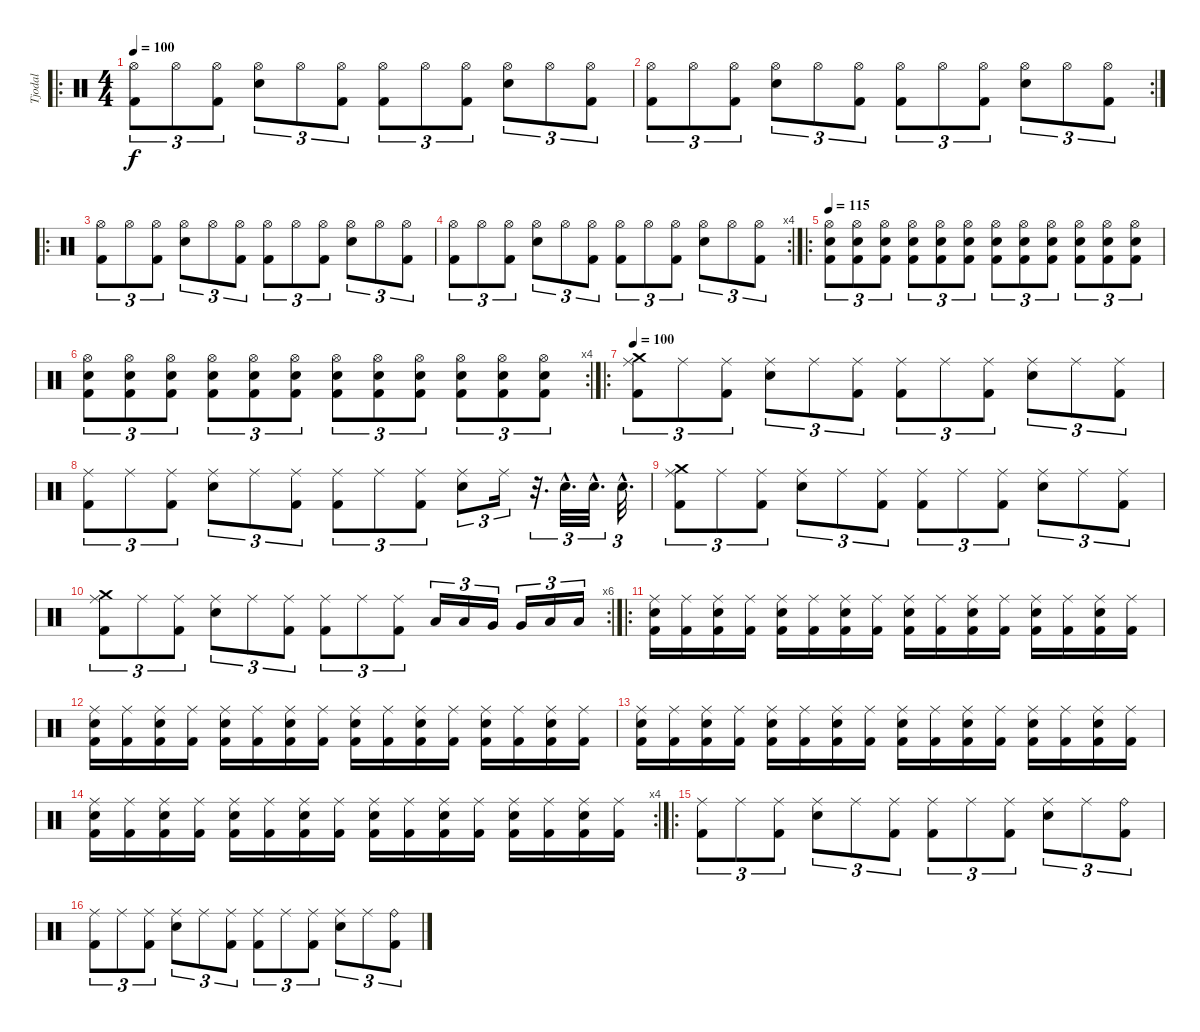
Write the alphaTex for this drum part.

\track ("Tjodal" "Tjodal") {instrument percussion}
\staff {score}
\articulation defaults
\ro
\ts (4 4)
\tempo 100
\clef neutral
\ks c
("Hi-Hat (open)" "Kick (hit) 2").8{tu (3 2) dy f} "Hi-Hat (open)".8{tu (3 2)} ("Hi-Hat (open)" "Kick (hit) 2").8{tu (3 2)} ("Hi-Hat (open)" "Snare (hit) 2").8{tu (3 2)} "Hi-Hat (open)".8{tu (3 2)} ("Hi-Hat (open)" "Kick (hit) 2").8{tu (3 2)} ("Hi-Hat (open)" "Kick (hit) 2").8{tu (3 2)} "Hi-Hat (open)".8{tu (3 2)} ("Hi-Hat (open)" "Kick (hit) 2").8{tu (3 2)} ("Hi-Hat (open)" "Snare (hit) 2").8{tu (3 2)} "Hi-Hat (open)".8{tu (3 2)} ("Hi-Hat (open)" "Kick (hit) 2").8{tu (3 2)} |
\rc 2
("Hi-Hat (open)" "Kick (hit) 2").8{tu (3 2)} "Hi-Hat (open)".8{tu (3 2)} ("Hi-Hat (open)" "Kick (hit) 2").8{tu (3 2)} ("Hi-Hat (open)" "Snare (hit) 2").8{tu (3 2)} "Hi-Hat (open)".8{tu (3 2)} ("Hi-Hat (open)" "Kick (hit) 2").8{tu (3 2)} ("Hi-Hat (open)" "Kick (hit) 2").8{tu (3 2)} "Hi-Hat (open)".8{tu (3 2)} ("Hi-Hat (open)" "Kick (hit) 2").8{tu (3 2)} ("Hi-Hat (open)" "Snare (hit) 2").8{tu (3 2)} "Hi-Hat (open)".8{tu (3 2)} ("Hi-Hat (open)" "Kick (hit) 2").8{tu (3 2)} |
\ro
("Hi-Hat (open)" "Kick (hit) 2").8{tu (3 2)} "Hi-Hat (open)".8{tu (3 2)} ("Hi-Hat (open)" "Kick (hit) 2").8{tu (3 2)} ("Hi-Hat (open)" "Snare (hit) 2").8{tu (3 2)} "Hi-Hat (open)".8{tu (3 2)} ("Hi-Hat (open)" "Kick (hit) 2").8{tu (3 2)} ("Hi-Hat (open)" "Kick (hit) 2").8{tu (3 2)} "Hi-Hat (open)".8{tu (3 2)} ("Hi-Hat (open)" "Kick (hit) 2").8{tu (3 2)} ("Hi-Hat (open)" "Snare (hit) 2").8{tu (3 2)} "Hi-Hat (open)".8{tu (3 2)} ("Hi-Hat (open)" "Kick (hit) 2").8{tu (3 2)} |
\rc 4
("Hi-Hat (open)" "Kick (hit) 2").8{tu (3 2)} "Hi-Hat (open)".8{tu (3 2)} ("Hi-Hat (open)" "Kick (hit) 2").8{tu (3 2)} ("Hi-Hat (open)" "Snare (hit) 2").8{tu (3 2)} "Hi-Hat (open)".8{tu (3 2)} ("Hi-Hat (open)" "Kick (hit) 2").8{tu (3 2)} ("Hi-Hat (open)" "Kick (hit) 2").8{tu (3 2)} "Hi-Hat (open)".8{tu (3 2)} ("Hi-Hat (open)" "Kick (hit) 2").8{tu (3 2)} ("Hi-Hat (open)" "Snare (hit) 2").8{tu (3 2)} "Hi-Hat (open)".8{tu (3 2)} ("Hi-Hat (open)" "Kick (hit) 2").8{tu (3 2)} |
\ro
\tempo 115
("Hi-Hat (open)" "Snare (hit) 2" "Kick (hit) 2").8{tu (3 2)} ("Hi-Hat (open)" "Snare (hit) 2" "Kick (hit) 2").8{tu (3 2)} ("Hi-Hat (open)" "Snare (hit) 2" "Kick (hit) 2").8{tu (3 2)} ("Hi-Hat (open)" "Snare (hit) 2" "Kick (hit) 2").8{tu (3 2)} ("Hi-Hat (open)" "Snare (hit) 2" "Kick (hit) 2").8{tu (3 2)} ("Hi-Hat (open)" "Snare (hit) 2" "Kick (hit) 2").8{tu (3 2)} ("Hi-Hat (open)" "Snare (hit) 2" "Kick (hit) 2").8{tu (3 2)} ("Hi-Hat (open)" "Snare (hit) 2" "Kick (hit) 2").8{tu (3 2)} ("Hi-Hat (open)" "Snare (hit) 2" "Kick (hit) 2").8{tu (3 2)} ("Hi-Hat (open)" "Snare (hit) 2" "Kick (hit) 2").8{tu (3 2)} ("Hi-Hat (open)" "Snare (hit) 2" "Kick (hit) 2").8{tu (3 2)} ("Hi-Hat (open)" "Snare (hit) 2" "Kick (hit) 2").8{tu (3 2)} |
\rc 4
("Hi-Hat (open)" "Snare (hit) 2" "Kick (hit) 2").8{tu (3 2)} ("Hi-Hat (open)" "Snare (hit) 2" "Kick (hit) 2").8{tu (3 2)} ("Hi-Hat (open)" "Snare (hit) 2" "Kick (hit) 2").8{tu (3 2)} ("Hi-Hat (open)" "Snare (hit) 2" "Kick (hit) 2").8{tu (3 2)} ("Hi-Hat (open)" "Snare (hit) 2" "Kick (hit) 2").8{tu (3 2)} ("Hi-Hat (open)" "Snare (hit) 2" "Kick (hit) 2").8{tu (3 2)} ("Hi-Hat (open)" "Snare (hit) 2" "Kick (hit) 2").8{tu (3 2)} ("Hi-Hat (open)" "Snare (hit) 2" "Kick (hit) 2").8{tu (3 2)} ("Hi-Hat (open)" "Snare (hit) 2" "Kick (hit) 2").8{tu (3 2)} ("Hi-Hat (open)" "Snare (hit) 2" "Kick (hit) 2").8{tu (3 2)} ("Hi-Hat (open)" "Snare (hit) 2" "Kick (hit) 2").8{tu (3 2)} ("Hi-Hat (open)" "Snare (hit) 2" "Kick (hit) 2").8{tu (3 2)} |
\ro
\tempo 100
("Ride (middle)" "Kick (hit) 2" "Crash medium (hit)").8{tu (3 2)} "Ride (middle)".8{tu (3 2)} ("Ride (middle)" "Kick (hit) 2").8{tu (3 2)} ("Ride (middle)" "Snare (hit) 2").8{tu (3 2)} "Ride (middle)".8{tu (3 2)} ("Ride (middle)" "Kick (hit) 2").8{tu (3 2)} ("Ride (middle)" "Kick (hit) 2").8{tu (3 2)} "Ride (middle)".8{tu (3 2)} ("Ride (middle)" "Kick (hit) 2").8{tu (3 2)} ("Ride (middle)" "Snare (hit) 2").8{tu (3 2)} "Ride (middle)".8{tu (3 2)} ("Ride (middle)" "Kick (hit) 2").8{tu (3 2)} |
("Ride (middle)" "Kick (hit) 2").8{tu (3 2)} "Ride (middle)".8{tu (3 2)} ("Ride (middle)" "Kick (hit) 2").8{tu (3 2)} ("Ride (middle)" "Snare (hit) 2").8{tu (3 2)} "Ride (middle)".8{tu (3 2)} ("Ride (middle)" "Kick (hit) 2").8{tu (3 2)} ("Ride (middle)" "Kick (hit) 2").8{tu (3 2)} "Ride (middle)".8{tu (3 2)} ("Ride (middle)" "Kick (hit) 2").8{tu (3 2)} ("Ride (middle)" "Snare (hit) 2").8{tu (3 2)} "Ride (middle)".16{tu (3 2)} r.32{d tu (3 2)} "Snare (hit) 2"{hac}.32{d tu (3 2)} "Snare (hit) 2"{hac}.32{d tu (3 2)} "Snare (hit) 2"{hac}.32{d tu (3 2)} |
("Ride (middle)" "Kick (hit) 2" "Crash medium (hit)").8{tu (3 2)} "Ride (middle)".8{tu (3 2)} ("Ride (middle)" "Kick (hit) 2").8{tu (3 2)} ("Ride (middle)" "Snare (hit) 2").8{tu (3 2)} "Ride (middle)".8{tu (3 2)} ("Ride (middle)" "Kick (hit) 2").8{tu (3 2)} ("Ride (middle)" "Kick (hit) 2").8{tu (3 2)} "Ride (middle)".8{tu (3 2)} ("Ride (middle)" "Kick (hit) 2").8{tu (3 2)} ("Ride (middle)" "Snare (hit) 2").8{tu (3 2)} "Ride (middle)".8{tu (3 2)} ("Ride (middle)" "Kick (hit) 2").8{tu (3 2)} |
\rc 6
("Ride (middle)" "Kick (hit) 2" "Crash medium (hit)").8{tu (3 2)} "Ride (middle)".8{tu (3 2)} ("Ride (middle)" "Kick (hit) 2").8{tu (3 2)} ("Ride (middle)" "Snare (hit) 2").8{tu (3 2)} "Ride (middle)".8{tu (3 2)} ("Ride (middle)" "Kick (hit) 2").8{tu (3 2)} ("Ride (middle)" "Kick (hit) 2").8{tu (3 2)} "Ride (middle)".8{tu (3 2)} ("Ride (middle)" "Kick (hit) 2").8{tu (3 2)} "Low Tom (hit)".16{tu (3 2)} "Low Tom (hit)".16{tu (3 2)} "Very Low Tom (hit)".16{tu (3 2)} "Very Low Tom (hit)".16{tu (3 2)} "Low Floor Tom (hit)".16{tu (3 2)} "Low Floor Tom (hit)".16{tu (3 2)} |
\ro
("Kick (hit) 2" "Ride (middle)" "Snare (hit) 2").16 ("Kick (hit) 2" "Ride (middle)").16 ("Kick (hit) 2" "Ride (middle)" "Snare (hit) 2").16 ("Kick (hit) 2" "Ride (middle)").16 ("Kick (hit) 2" "Ride (middle)" "Snare (hit) 2").16 ("Kick (hit) 2" "Ride (middle)").16 ("Kick (hit) 2" "Ride (middle)" "Snare (hit) 2").16 ("Kick (hit) 2" "Ride (middle)").16 ("Kick (hit) 2" "Ride (middle)" "Snare (hit) 2").16 ("Kick (hit) 2" "Ride (middle)").16 ("Kick (hit) 2" "Ride (middle)" "Snare (hit) 2").16 ("Kick (hit) 2" "Ride (middle)").16 ("Kick (hit) 2" "Ride (middle)" "Snare (hit) 2").16 ("Kick (hit) 2" "Ride (middle)").16 ("Kick (hit) 2" "Ride (middle)" "Snare (hit) 2").16 ("Kick (hit) 2" "Ride (middle)").16 |
("Kick (hit) 2" "Ride (middle)" "Snare (hit) 2").16 ("Kick (hit) 2" "Ride (middle)").16 ("Kick (hit) 2" "Ride (middle)" "Snare (hit) 2").16 ("Kick (hit) 2" "Ride (middle)").16 ("Kick (hit) 2" "Ride (middle)" "Snare (hit) 2").16 ("Kick (hit) 2" "Ride (middle)").16 ("Kick (hit) 2" "Ride (middle)" "Snare (hit) 2").16 ("Kick (hit) 2" "Ride (middle)").16 ("Kick (hit) 2" "Ride (middle)" "Snare (hit) 2").16 ("Kick (hit) 2" "Ride (middle)").16 ("Kick (hit) 2" "Ride (middle)" "Snare (hit) 2").16 ("Kick (hit) 2" "Ride (middle)").16 ("Kick (hit) 2" "Ride (middle)" "Snare (hit) 2").16 ("Kick (hit) 2" "Ride (middle)").16 ("Kick (hit) 2" "Ride (middle)" "Snare (hit) 2").16 ("Kick (hit) 2" "Ride (middle)").16 |
("Kick (hit) 2" "Ride (middle)" "Snare (hit) 2").16 ("Kick (hit) 2" "Ride (middle)").16 ("Kick (hit) 2" "Ride (middle)" "Snare (hit) 2").16 ("Kick (hit) 2" "Ride (middle)").16 ("Kick (hit) 2" "Ride (middle)" "Snare (hit) 2").16 ("Kick (hit) 2" "Ride (middle)").16 ("Kick (hit) 2" "Ride (middle)" "Snare (hit) 2").16 ("Kick (hit) 2" "Ride (middle)").16 ("Kick (hit) 2" "Ride (middle)" "Snare (hit) 2").16 ("Kick (hit) 2" "Ride (middle)").16 ("Kick (hit) 2" "Ride (middle)" "Snare (hit) 2").16 ("Kick (hit) 2" "Ride (middle)").16 ("Kick (hit) 2" "Ride (middle)" "Snare (hit) 2").16 ("Kick (hit) 2" "Ride (middle)").16 ("Kick (hit) 2" "Ride (middle)" "Snare (hit) 2").16 ("Kick (hit) 2" "Ride (middle)").16 |
\rc 4
("Kick (hit) 2" "Ride (middle)" "Snare (hit) 2").16 ("Kick (hit) 2" "Ride (middle)").16 ("Kick (hit) 2" "Ride (middle)" "Snare (hit) 2").16 ("Kick (hit) 2" "Ride (middle)").16 ("Kick (hit) 2" "Ride (middle)" "Snare (hit) 2").16 ("Kick (hit) 2" "Ride (middle)").16 ("Kick (hit) 2" "Ride (middle)" "Snare (hit) 2").16 ("Kick (hit) 2" "Ride (middle)").16 ("Kick (hit) 2" "Ride (middle)" "Snare (hit) 2").16 ("Kick (hit) 2" "Ride (middle)").16 ("Kick (hit) 2" "Ride (middle)" "Snare (hit) 2").16 ("Kick (hit) 2" "Ride (middle)").16 ("Kick (hit) 2" "Ride (middle)" "Snare (hit) 2").16 ("Kick (hit) 2" "Ride (middle)").16 ("Kick (hit) 2" "Ride (middle)" "Snare (hit) 2").16 ("Kick (hit) 2" "Ride (middle)").16 |
\ro
("Ride (middle)" "Kick (hit) 2").8{tu (3 2)} "Ride (middle)".8{tu (3 2)} ("Ride (middle)" "Kick (hit) 2").8{tu (3 2)} ("Ride (middle)" "Snare (hit) 2").8{tu (3 2)} "Ride (middle)".8{tu (3 2)} ("Ride (middle)" "Kick (hit) 2").8{tu (3 2)} ("Ride (middle)" "Kick (hit) 2").8{tu (3 2)} "Ride (middle)".8{tu (3 2)} ("Ride (middle)" "Kick (hit) 2").8{tu (3 2)} ("Ride (middle)" "Snare (hit) 2").8{tu (3 2)} "Ride (middle)".8{tu (3 2)} ("Ride (bell)" "Kick (hit) 2").8{tu (3 2)} |
("Ride (middle)" "Kick (hit) 2").8{tu (3 2)} "Ride (middle)".8{tu (3 2)} ("Ride (middle)" "Kick (hit) 2").8{tu (3 2)} ("Ride (middle)" "Snare (hit) 2").8{tu (3 2)} "Ride (middle)".8{tu (3 2)} ("Ride (middle)" "Kick (hit) 2").8{tu (3 2)} ("Ride (middle)" "Kick (hit) 2").8{tu (3 2)} "Ride (middle)".8{tu (3 2)} ("Ride (middle)" "Kick (hit) 2").8{tu (3 2)} ("Ride (middle)" "Snare (hit) 2").8{tu (3 2)} "Ride (middle)".8{tu (3 2)} ("Ride (bell)" "Kick (hit) 2").8{tu (3 2)}
